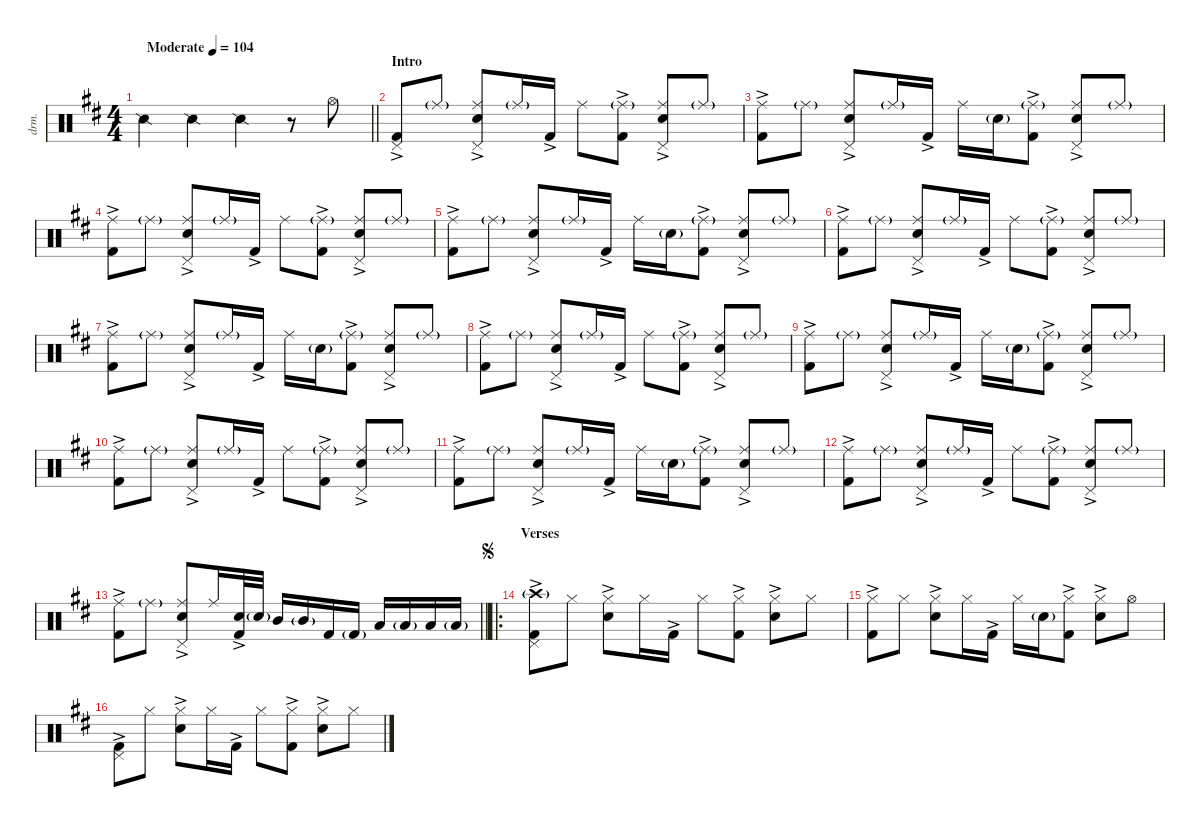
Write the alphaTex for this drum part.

\defaultSystemsLayout 4
\hideDynamics
\bracketExtendMode nobrackets
\otherSystemsTrackNameOrientation horizontal
\track ("Drums" "drm.") {instrument percussion}
\staff {score}
\articulation defaults
\ts (4 4)
\beaming (8 2 2 2 2)
\tempo (104 "Moderate")
\clef neutral
\barLineRight lightlight
\ks d "Snare (side stick) 2"{acc forcenatural}.4{dy f} "Snare (side stick) 2"{acc forcenatural}.4 "Snare (side stick) 2"{acc forcenatural}.4
r.8 "Hi-Hat (open)"{acc forcenatural}.8 |
\section ("" "Intro")
("Pedal Hi-Hat (hit)"{acc forcenatural} "Kick (hit) 2"{ac acc forcenatural}).8 "Ride (middle)"{g acc forcenatural}.8{dy mf} ("Ride (middle)"{acc forcenatural} "Pedal Hi-Hat (hit)"{acc forcenatural} "Snare (hit) 2"{ac acc forcenatural}).8{dy f} "Ride (middle)"{g acc forcenatural}.16{dy mf} "Kick (hit) 2"{ac acc forcenatural}.16{dy f} "Ride (middle)"{acc forcenatural}.8 ("Ride (middle)"{g acc forcenatural} "Kick (hit) 2"{ac acc forcenatural}).8{dy mf} ("Ride (middle)"{acc forcenatural} "Pedal Hi-Hat (hit)"{acc forcenatural} "Snare (hit) 2"{ac acc forcenatural}).8{dy f} "Ride (middle)"{g acc forcenatural}.8{dy mf} |
("Ride (middle)"{acc forcenatural} "Kick (hit) 2"{ac acc forcenatural}).8{dy f} "Ride (middle)"{g acc forcenatural}.8{dy mf} ("Ride (middle)"{acc forcenatural} "Pedal Hi-Hat (hit)"{acc forcenatural} "Snare (hit) 2"{ac acc forcenatural}).8{dy f} "Ride (middle)"{g acc forcenatural}.16{dy mf} "Kick (hit) 2"{ac acc forcenatural}.16{dy f} "Ride (middle)"{acc forcenatural}.16 "Snare (hit) 2"{g acc forcenatural}.16{dy p} ("Ride (middle)"{g acc forcenatural} "Kick (hit) 2"{ac acc forcenatural}).8{dy mf} ("Ride (middle)"{acc forcenatural} "Pedal Hi-Hat (hit)"{acc forcenatural} "Snare (hit) 2"{ac acc forcenatural}).8{dy f} "Ride (middle)"{g acc forcenatural}.8{dy mf} |
("Ride (middle)"{acc forcenatural} "Kick (hit) 2"{ac acc forcenatural}).8{dy f} "Ride (middle)"{g acc forcenatural}.8{dy mf} ("Ride (middle)"{acc forcenatural} "Pedal Hi-Hat (hit)"{acc forcenatural} "Snare (hit) 2"{ac acc forcenatural}).8{dy f} "Ride (middle)"{g acc forcenatural}.16{dy mf} "Kick (hit) 2"{ac acc forcenatural}.16{dy f} "Ride (middle)"{acc forcenatural}.8 ("Ride (middle)"{g acc forcenatural} "Kick (hit) 2"{ac acc forcenatural}).8{dy mf} ("Ride (middle)"{acc forcenatural} "Pedal Hi-Hat (hit)"{acc forcenatural} "Snare (hit) 2"{ac acc forcenatural}).8{dy f} "Ride (middle)"{g acc forcenatural}.8{dy mf} |
("Ride (middle)"{acc forcenatural} "Kick (hit) 2"{ac acc forcenatural}).8{dy f} "Ride (middle)"{g acc forcenatural}.8{dy mf} ("Ride (middle)"{acc forcenatural} "Pedal Hi-Hat (hit)"{acc forcenatural} "Snare (hit) 2"{ac acc forcenatural}).8{dy f} "Ride (middle)"{g acc forcenatural}.16{dy mf} "Kick (hit) 2"{ac acc forcenatural}.16{dy f} "Ride (middle)"{acc forcenatural}.16 "Snare (hit) 2"{g acc forcenatural}.16{dy p} ("Ride (middle)"{g acc forcenatural} "Kick (hit) 2"{ac acc forcenatural}).8{dy mf} ("Ride (middle)"{acc forcenatural} "Pedal Hi-Hat (hit)"{acc forcenatural} "Snare (hit) 2"{ac acc forcenatural}).8{dy f} "Ride (middle)"{g acc forcenatural}.8{dy mf} |
("Ride (middle)"{acc forcenatural} "Kick (hit) 2"{ac acc forcenatural}).8{dy f} "Ride (middle)"{g acc forcenatural}.8{dy mf} ("Ride (middle)"{acc forcenatural} "Pedal Hi-Hat (hit)"{acc forcenatural} "Snare (hit) 2"{ac acc forcenatural}).8{dy f} "Ride (middle)"{g acc forcenatural}.16{dy mf} "Kick (hit) 2"{ac acc forcenatural}.16{dy f} "Ride (middle)"{acc forcenatural}.8 ("Ride (middle)"{g acc forcenatural} "Kick (hit) 2"{ac acc forcenatural}).8{dy mf} ("Ride (middle)"{acc forcenatural} "Pedal Hi-Hat (hit)"{acc forcenatural} "Snare (hit) 2"{ac acc forcenatural}).8{dy f} "Ride (middle)"{g acc forcenatural}.8{dy mf} |
("Ride (middle)"{acc forcenatural} "Kick (hit) 2"{ac acc forcenatural}).8{dy f} "Ride (middle)"{g acc forcenatural}.8{dy mf} ("Ride (middle)"{acc forcenatural} "Pedal Hi-Hat (hit)"{acc forcenatural} "Snare (hit) 2"{ac acc forcenatural}).8{dy f} "Ride (middle)"{g acc forcenatural}.16{dy mf} "Kick (hit) 2"{ac acc forcenatural}.16{dy f} "Ride (middle)"{acc forcenatural}.16 "Snare (hit) 2"{g acc forcenatural}.16{dy p} ("Ride (middle)"{g acc forcenatural} "Kick (hit) 2"{ac acc forcenatural}).8{dy mf} ("Ride (middle)"{acc forcenatural} "Pedal Hi-Hat (hit)"{acc forcenatural} "Snare (hit) 2"{ac acc forcenatural}).8{dy f} "Ride (middle)"{g acc forcenatural}.8{dy mf} |
("Ride (middle)"{acc forcenatural} "Kick (hit) 2"{ac acc forcenatural}).8{dy f} "Ride (middle)"{g acc forcenatural}.8{dy mf} ("Ride (middle)"{acc forcenatural} "Pedal Hi-Hat (hit)"{acc forcenatural} "Snare (hit) 2"{ac acc forcenatural}).8{dy f} "Ride (middle)"{g acc forcenatural}.16{dy mf} "Kick (hit) 2"{ac acc forcenatural}.16{dy f} "Ride (middle)"{acc forcenatural}.8 ("Ride (middle)"{g acc forcenatural} "Kick (hit) 2"{ac acc forcenatural}).8{dy mf} ("Ride (middle)"{acc forcenatural} "Pedal Hi-Hat (hit)"{acc forcenatural} "Snare (hit) 2"{ac acc forcenatural}).8{dy f} "Ride (middle)"{g acc forcenatural}.8{dy mf} |
("Ride (middle)"{acc forcenatural} "Kick (hit) 2"{ac acc forcenatural}).8{dy f} "Ride (middle)"{g acc forcenatural}.8{dy mf} ("Ride (middle)"{acc forcenatural} "Pedal Hi-Hat (hit)"{acc forcenatural} "Snare (hit) 2"{ac acc forcenatural}).8{dy f} "Ride (middle)"{g acc forcenatural}.16{dy mf} "Kick (hit) 2"{ac acc forcenatural}.16{dy f} "Ride (middle)"{acc forcenatural}.16 "Snare (hit) 2"{g acc forcenatural}.16{dy p} ("Ride (middle)"{g acc forcenatural} "Kick (hit) 2"{ac acc forcenatural}).8{dy mf} ("Ride (middle)"{acc forcenatural} "Pedal Hi-Hat (hit)"{acc forcenatural} "Snare (hit) 2"{ac acc forcenatural}).8{dy f} "Ride (middle)"{g acc forcenatural}.8{dy mf} |
("Ride (middle)"{acc forcenatural} "Kick (hit) 2"{ac acc forcenatural}).8{dy f} "Ride (middle)"{g acc forcenatural}.8{dy mf} ("Ride (middle)"{acc forcenatural} "Pedal Hi-Hat (hit)"{acc forcenatural} "Snare (hit) 2"{ac acc forcenatural}).8{dy f} "Ride (middle)"{g acc forcenatural}.16{dy mf} "Kick (hit) 2"{ac acc forcenatural}.16{dy f} "Ride (middle)"{acc forcenatural}.8 ("Ride (middle)"{g acc forcenatural} "Kick (hit) 2"{ac acc forcenatural}).8{dy mf} ("Ride (middle)"{acc forcenatural} "Pedal Hi-Hat (hit)"{acc forcenatural} "Snare (hit) 2"{ac acc forcenatural}).8{dy f} "Ride (middle)"{g acc forcenatural}.8{dy mf} |
("Ride (middle)"{acc forcenatural} "Kick (hit) 2"{ac acc forcenatural}).8{dy f} "Ride (middle)"{g acc forcenatural}.8{dy mf} ("Ride (middle)"{acc forcenatural} "Pedal Hi-Hat (hit)"{acc forcenatural} "Snare (hit) 2"{ac acc forcenatural}).8{dy f} "Ride (middle)"{g acc forcenatural}.16{dy mf} "Kick (hit) 2"{ac acc forcenatural}.16{dy f} "Ride (middle)"{acc forcenatural}.16 "Snare (hit) 2"{g acc forcenatural}.16{dy p} ("Ride (middle)"{g acc forcenatural} "Kick (hit) 2"{ac acc forcenatural}).8{dy mf} ("Ride (middle)"{acc forcenatural} "Pedal Hi-Hat (hit)"{acc forcenatural} "Snare (hit) 2"{ac acc forcenatural}).8{dy f} "Ride (middle)"{g acc forcenatural}.8{dy mf} |
("Ride (middle)"{acc forcenatural} "Kick (hit) 2"{ac acc forcenatural}).8{dy f} "Ride (middle)"{g acc forcenatural}.8{dy mf} ("Ride (middle)"{acc forcenatural} "Pedal Hi-Hat (hit)"{acc forcenatural} "Snare (hit) 2"{ac acc forcenatural}).8{dy f} "Ride (middle)"{g acc forcenatural}.16{dy mf} "Kick (hit) 2"{ac acc forcenatural}.16{dy f} "Ride (middle)"{acc forcenatural}.8 ("Ride (middle)"{g acc forcenatural} "Kick (hit) 2"{ac acc forcenatural}).8{dy mf} ("Ride (middle)"{acc forcenatural} "Pedal Hi-Hat (hit)"{acc forcenatural} "Snare (hit) 2"{ac acc forcenatural}).8{dy f} "Ride (middle)"{g acc forcenatural}.8{dy mf} |
\barLineRight lightlight
("Ride (middle)"{acc forcenatural} "Kick (hit) 2"{ac acc forcenatural}).8{dy f} "Ride (middle)"{g acc forcenatural}.8{dy mf} ("Ride (middle)"{acc forcenatural} "Pedal Hi-Hat (hit)"{acc forcenatural} "Snare (hit) 2"{ac acc forcenatural}).8{dy f} "Ride (middle)"{acc forcenatural}.16 ("Snare (hit) 2"{acc forcenatural} "Kick (hit) 2"{ac acc forcenatural}).32 "Snare (hit) 2"{g acc forcenatural}.32{dy mf} "Mid Tom (hit)"{acc forcenatural}.16{dy f} "Mid Tom (hit)"{g acc forcenatural}.16{dy mf} "Kick (hit) 2"{acc forcenatural}.16{dy f} "Kick (hit) 2"{g acc forcenatural}.16{dy mf} "Low Tom (hit)"{acc forcenatural}.16{dy f} "Low Tom (hit)"{g acc forcenatural}.16{dy mf} "Low Floor Tom (hit)"{acc forcenatural}.16{dy f} "Low Floor Tom (hit)"{g acc forcenatural}.16{dy mf} |
\ro
\section ("" "Verses")
\jump segno
("Pedal Hi-Hat (hit)"{acc forcenatural} "Crash high (hit)"{g acc forcenatural} "Kick (hit) 2"{ac acc forcenatural}).8{dy f} "Hi-Hat (closed)"{acc forcenatural}.8 ("Hi-Hat (closed)"{acc forcenatural} "Snare (hit) 2"{ac acc forcenatural}).8 "Hi-Hat (closed)"{acc forcenatural}.16 "Kick (hit) 2"{ac acc forcenatural}.16 "Hi-Hat (closed)"{acc forcenatural}.8 ("Hi-Hat (closed)"{acc forcenatural} "Kick (hit) 2"{ac acc forcenatural}).8 ("Hi-Hat (closed)"{acc forcenatural} "Snare (hit) 2"{ac acc forcenatural}).8 "Hi-Hat (closed)"{acc forcenatural}.8 |
("Hi-Hat (closed)"{acc forcenatural} "Kick (hit) 2"{ac acc forcenatural}).8 "Hi-Hat (closed)"{acc forcenatural}.8 ("Hi-Hat (closed)"{acc forcenatural} "Snare (hit) 2"{ac acc forcenatural}).8 "Hi-Hat (closed)"{acc forcenatural}.16 "Kick (hit) 2"{ac acc forcenatural}.16 "Hi-Hat (closed)"{acc forcenatural}.16 "Snare (hit) 2"{g acc forcenatural}.16{dy p} ("Hi-Hat (closed)"{acc forcenatural} "Kick (hit) 2"{ac acc forcenatural}).8{dy f} ("Hi-Hat (closed)"{acc forcenatural} "Snare (hit) 2"{ac acc forcenatural}).8 "Hi-Hat (open)"{acc forcenatural}.8 |
("Pedal Hi-Hat (hit)"{acc forcenatural} "Kick (hit) 2"{ac acc forcenatural}).8 "Hi-Hat (closed)"{acc forcenatural}.8 ("Hi-Hat (closed)"{acc forcenatural} "Snare (hit) 2"{ac acc forcenatural}).8 "Hi-Hat (closed)"{acc forcenatural}.16 "Kick (hit) 2"{ac acc forcenatural}.16 "Hi-Hat (closed)"{acc forcenatural}.8 ("Hi-Hat (closed)"{acc forcenatural} "Kick (hit) 2"{ac acc forcenatural}).8 ("Hi-Hat (closed)"{acc forcenatural} "Snare (hit) 2"{ac acc forcenatural}).8 "Hi-Hat (closed)"{acc forcenatural}.8
